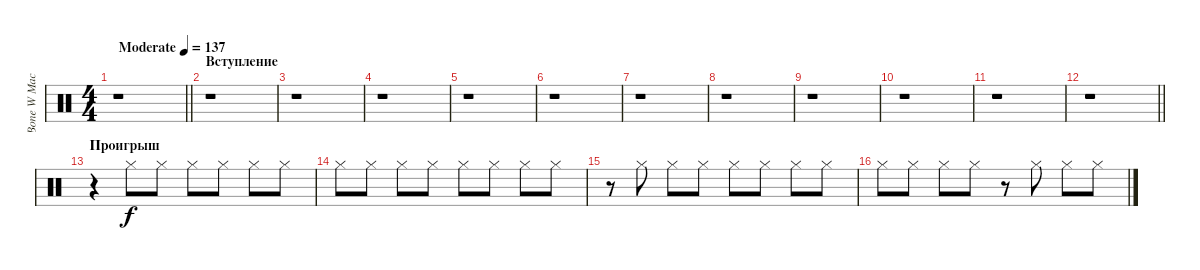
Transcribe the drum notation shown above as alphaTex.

\track ("Bone W Machine Cimbals" "Bone W Mac") {instrument percussion}
\staff {score}
\articulation defaults
\ts (4 4)
\tempo (137 "Moderate")
\clef neutral
\barLineRight lightlight
\ks c
r.1{dy f} |
\section ("" "Вступление")
r.1 |
r.1 |
r.1 |
r.1 |
r.1 |
r.1 |
r.1 |
r.1 |
r.1 |
r.1 |
\barLineRight lightlight
r.1 |
\section ("" "Проигрыш")
r.4 "Hi-Hat (closed)".8 "Hi-Hat (closed)".8 "Hi-Hat (closed)".8 "Hi-Hat (closed)".8 "Hi-Hat (closed)".8 "Hi-Hat (closed)".8 |
"Hi-Hat (closed)".8 "Hi-Hat (closed)".8 "Hi-Hat (closed)".8 "Hi-Hat (closed)".8 "Hi-Hat (closed)".8 "Hi-Hat (closed)".8 "Hi-Hat (closed)".8 "Hi-Hat (closed)".8 |
r.8 "Hi-Hat (closed)".8 "Hi-Hat (closed)".8 "Hi-Hat (closed)".8 "Hi-Hat (closed)".8 "Hi-Hat (closed)".8 "Hi-Hat (closed)".8 "Hi-Hat (closed)".8 |
"Hi-Hat (closed)".8 "Hi-Hat (closed)".8 "Hi-Hat (closed)".8 "Hi-Hat (closed)".8 r.8 "Hi-Hat (closed)".8 "Hi-Hat (closed)".8 "Hi-Hat (closed)".8
